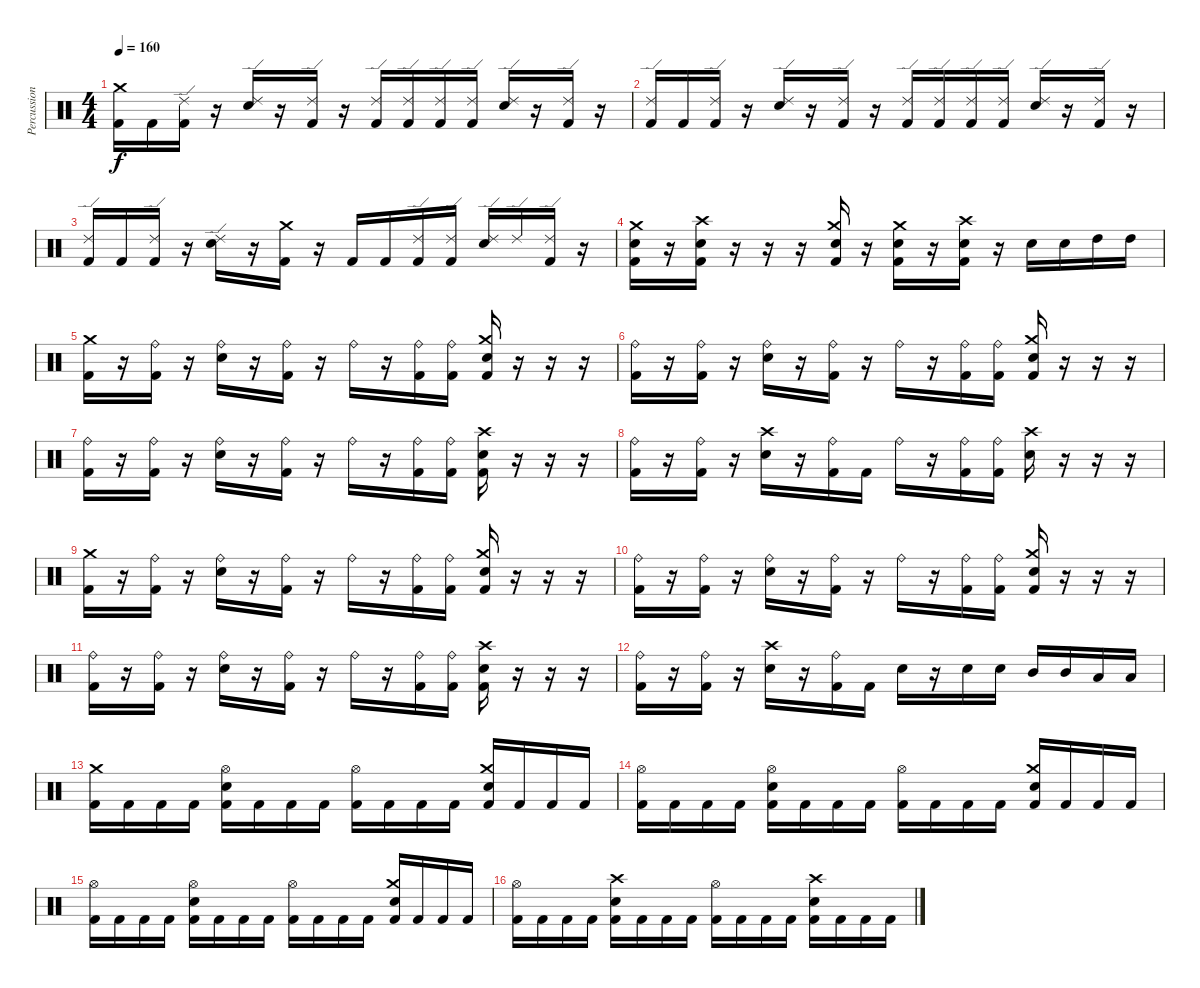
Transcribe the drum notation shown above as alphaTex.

\track ("Percussions" "Percussion") {instrument percussion}
\staff {score}
\articulation defaults
\ts (4 4)
\tempo 160
\clef neutral
\ks c
("Kick (hit) 2" "Crash medium (hit)").16{dy f} "Kick (hit) 2".16 ("Kick (hit) 2" "Ride (edge) 2").16 r.16 ("Snare (hit) 2" "Ride (edge) 2").16 r.16 ("Kick (hit) 2" "Ride (edge) 2").16 r.16 ("Kick (hit) 2" "Ride (edge) 2").16 ("Kick (hit) 2" "Ride (edge) 2").16 ("Kick (hit) 2" "Ride (edge) 2").16 ("Kick (hit) 2" "Ride (edge) 2").16 ("Snare (hit) 2" "Ride (edge) 2").16 r.16 ("Kick (hit) 2" "Ride (edge) 2").16 r.16 |
("Kick (hit) 2" "Ride (edge) 2").16 "Kick (hit) 2".16 ("Kick (hit) 2" "Ride (edge) 2").16 r.16 ("Snare (hit) 2" "Ride (edge) 2").16 r.16 ("Kick (hit) 2" "Ride (edge) 2").16 r.16 ("Kick (hit) 2" "Ride (edge) 2").16 ("Kick (hit) 2" "Ride (edge) 2").16 ("Kick (hit) 2" "Ride (edge) 2").16 ("Kick (hit) 2" "Ride (edge) 2").16 ("Snare (hit) 2" "Ride (edge) 2").16 r.16 ("Kick (hit) 2" "Ride (edge) 2").16 r.16 |
("Kick (hit) 2" "Ride (edge) 2").16 "Kick (hit) 2".16 ("Kick (hit) 2" "Ride (edge) 2").16 r.16 ("Snare (hit) 2" "Ride (edge) 2").16 r.16 ("Kick (hit) 2" "Crash medium (hit)").16 r.16 "Kick (hit) 2".16 "Kick (hit) 2".16 ("Kick (hit) 2" "Ride (edge) 2").16 ("Kick (hit) 2" "Ride (edge) 2").16 ("Snare (hit) 2" "Ride (edge) 2").16 "Ride (edge) 2".16 ("Kick (hit) 2" "Ride (edge) 2").16 r.16 |
("Crash medium (hit)" "Kick (hit) 2" "Electric Snare (hit)").16 r.16 ("Crash high (hit)" "Kick (hit) 2" "Electric Snare (hit)").16 r.16 r.16 r.16 ("Crash medium (hit)" "Kick (hit) 2" "Electric Snare (hit)").16 r.16 ("Crash medium (hit)" "Kick (hit) 2" "Electric Snare (hit)").16 r.16 ("Crash high (hit)" "Kick (hit) 2" "Electric Snare (hit)").16 r.16 "Snare (hit) 2".16 "Snare (hit) 2".16 "High Tom (hit)".16 "High Tom (hit)".16 |
("Kick (hit) 2" "Crash medium (hit)").16 r.16 ("Kick (hit) 2" "Ride (bell)").16 r.16 ("Snare (hit) 2" "Ride (bell)").16 r.16 ("Kick (hit) 2" "Ride (bell)").16 r.16 "Ride (bell)".16 r.16 ("Kick (hit) 2" "Ride (bell)").16 ("Kick (hit) 2" "Ride (bell)").16 ("Snare (hit) 2" "Kick (hit) 2" "Crash medium (hit)").16 r.16 r.16 r.16 |
("Kick (hit) 2" "Ride (bell)").16 r.16 ("Kick (hit) 2" "Ride (bell)").16 r.16 ("Snare (hit) 2" "Ride (bell)").16 r.16 ("Kick (hit) 2" "Ride (bell)").16 r.16 "Ride (bell)".16 r.16 ("Kick (hit) 2" "Ride (bell)").16 ("Kick (hit) 2" "Ride (bell)").16 ("Snare (hit) 2" "Kick (hit) 2" "Crash medium (hit)").16 r.16 r.16 r.16 |
("Kick (hit) 2" "Ride (bell)").16 r.16 ("Kick (hit) 2" "Ride (bell)").16 r.16 ("Snare (hit) 2" "Ride (bell)").16 r.16 ("Kick (hit) 2" "Ride (bell)").16 r.16 "Ride (bell)".16 r.16 ("Kick (hit) 2" "Ride (bell)").16 ("Kick (hit) 2" "Ride (bell)").16 ("Snare (hit) 2" "Kick (hit) 2" "Crash high (hit)").16 r.16 r.16 r.16 |
("Kick (hit) 2" "Ride (bell)").16 r.16 ("Kick (hit) 2" "Ride (bell)").16 r.16 ("Snare (hit) 2" "Crash high (hit)").16 r.16 ("Kick (hit) 2" "Ride (bell)").16 "Kick (hit) 2".16 "Ride (bell)".16 r.16 ("Kick (hit) 2" "Ride (bell)").16 ("Kick (hit) 2" "Ride (bell)").16 ("Snare (hit) 2" "Crash high (hit)").16 r.16 r.16 r.16 |
("Kick (hit) 2" "Crash medium (hit)").16 r.16 ("Kick (hit) 2" "Ride (bell)").16 r.16 ("Snare (hit) 2" "Ride (bell)").16 r.16 ("Kick (hit) 2" "Ride (bell)").16 r.16 "Ride (bell)".16 r.16 ("Kick (hit) 2" "Ride (bell)").16 ("Kick (hit) 2" "Ride (bell)").16 ("Snare (hit) 2" "Kick (hit) 2" "Crash medium (hit)").16 r.16 r.16 r.16 |
("Kick (hit) 2" "Ride (bell)").16 r.16 ("Kick (hit) 2" "Ride (bell)").16 r.16 ("Snare (hit) 2" "Ride (bell)").16 r.16 ("Kick (hit) 2" "Ride (bell)").16 r.16 "Ride (bell)".16 r.16 ("Kick (hit) 2" "Ride (bell)").16 ("Kick (hit) 2" "Ride (bell)").16 ("Snare (hit) 2" "Kick (hit) 2" "Crash medium (hit)").16 r.16 r.16 r.16 |
("Kick (hit) 2" "Ride (bell)").16 r.16 ("Kick (hit) 2" "Ride (bell)").16 r.16 ("Snare (hit) 2" "Ride (bell)").16 r.16 ("Kick (hit) 2" "Ride (bell)").16 r.16 "Ride (bell)".16 r.16 ("Kick (hit) 2" "Ride (bell)").16 ("Kick (hit) 2" "Ride (bell)").16 ("Snare (hit) 2" "Kick (hit) 2" "Crash high (hit)").16 r.16 r.16 r.16 |
("Kick (hit) 2" "Ride (bell)").16 r.16 ("Kick (hit) 2" "Ride (bell)").16 r.16 ("Snare (hit) 2" "Crash high (hit)").16 r.16 ("Kick (hit) 2" "Ride (bell)").16 "Kick (hit) 2".16 "Snare (hit) 2".16 r.16 "Snare (hit) 2".16 "Snare (hit) 2".16 "Mid Tom (hit)".16 "Mid Tom (hit)".16 "Low Tom (hit)".16 "Low Tom (hit)".16 |
("Kick (hit) 2" "Crash medium (hit)").16 "Kick (hit) 2".16 "Kick (hit) 2".16 "Kick (hit) 2".16 ("Kick (hit) 2" "Electric Snare (hit)" "Hi-Hat (open)").16 "Kick (hit) 2".16 "Kick (hit) 2".16 "Kick (hit) 2".16 ("Kick (hit) 2" "Hi-Hat (open)").16 "Kick (hit) 2".16 "Kick (hit) 2".16 "Kick (hit) 2".16 ("Kick (hit) 2" "Electric Snare (hit)" "Crash medium (hit)").16 "Kick (hit) 2".16 "Kick (hit) 2".16 "Kick (hit) 2".16 |
("Kick (hit) 2" "Hi-Hat (open)").16 "Kick (hit) 2".16 "Kick (hit) 2".16 "Kick (hit) 2".16 ("Kick (hit) 2" "Electric Snare (hit)" "Hi-Hat (open)").16 "Kick (hit) 2".16 "Kick (hit) 2".16 "Kick (hit) 2".16 ("Kick (hit) 2" "Hi-Hat (open)").16 "Kick (hit) 2".16 "Kick (hit) 2".16 "Kick (hit) 2".16 ("Kick (hit) 2" "Electric Snare (hit)" "Crash medium (hit)").16 "Kick (hit) 2".16 "Kick (hit) 2".16 "Kick (hit) 2".16 |
("Kick (hit) 2" "Hi-Hat (open)").16 "Kick (hit) 2".16 "Kick (hit) 2".16 "Kick (hit) 2".16 ("Kick (hit) 2" "Electric Snare (hit)" "Hi-Hat (open)").16 "Kick (hit) 2".16 "Kick (hit) 2".16 "Kick (hit) 2".16 ("Kick (hit) 2" "Hi-Hat (open)").16 "Kick (hit) 2".16 "Kick (hit) 2".16 "Kick (hit) 2".16 ("Kick (hit) 2" "Electric Snare (hit)" "Crash medium (hit)").16 "Kick (hit) 2".16 "Kick (hit) 2".16 "Kick (hit) 2".16 |
("Kick (hit) 2" "Hi-Hat (open)").16 "Kick (hit) 2".16 "Kick (hit) 2".16 "Kick (hit) 2".16 ("Kick (hit) 2" "Electric Snare (hit)" "Crash high (hit)").16 "Kick (hit) 2".16 "Kick (hit) 2".16 "Kick (hit) 2".16 ("Kick (hit) 2" "Hi-Hat (open)").16 "Kick (hit) 2".16 "Kick (hit) 2".16 "Kick (hit) 2".16 ("Kick (hit) 2" "Electric Snare (hit)" "Crash high (hit)").16 "Kick (hit) 2".16 "Kick (hit) 2".16 "Kick (hit) 2".16
